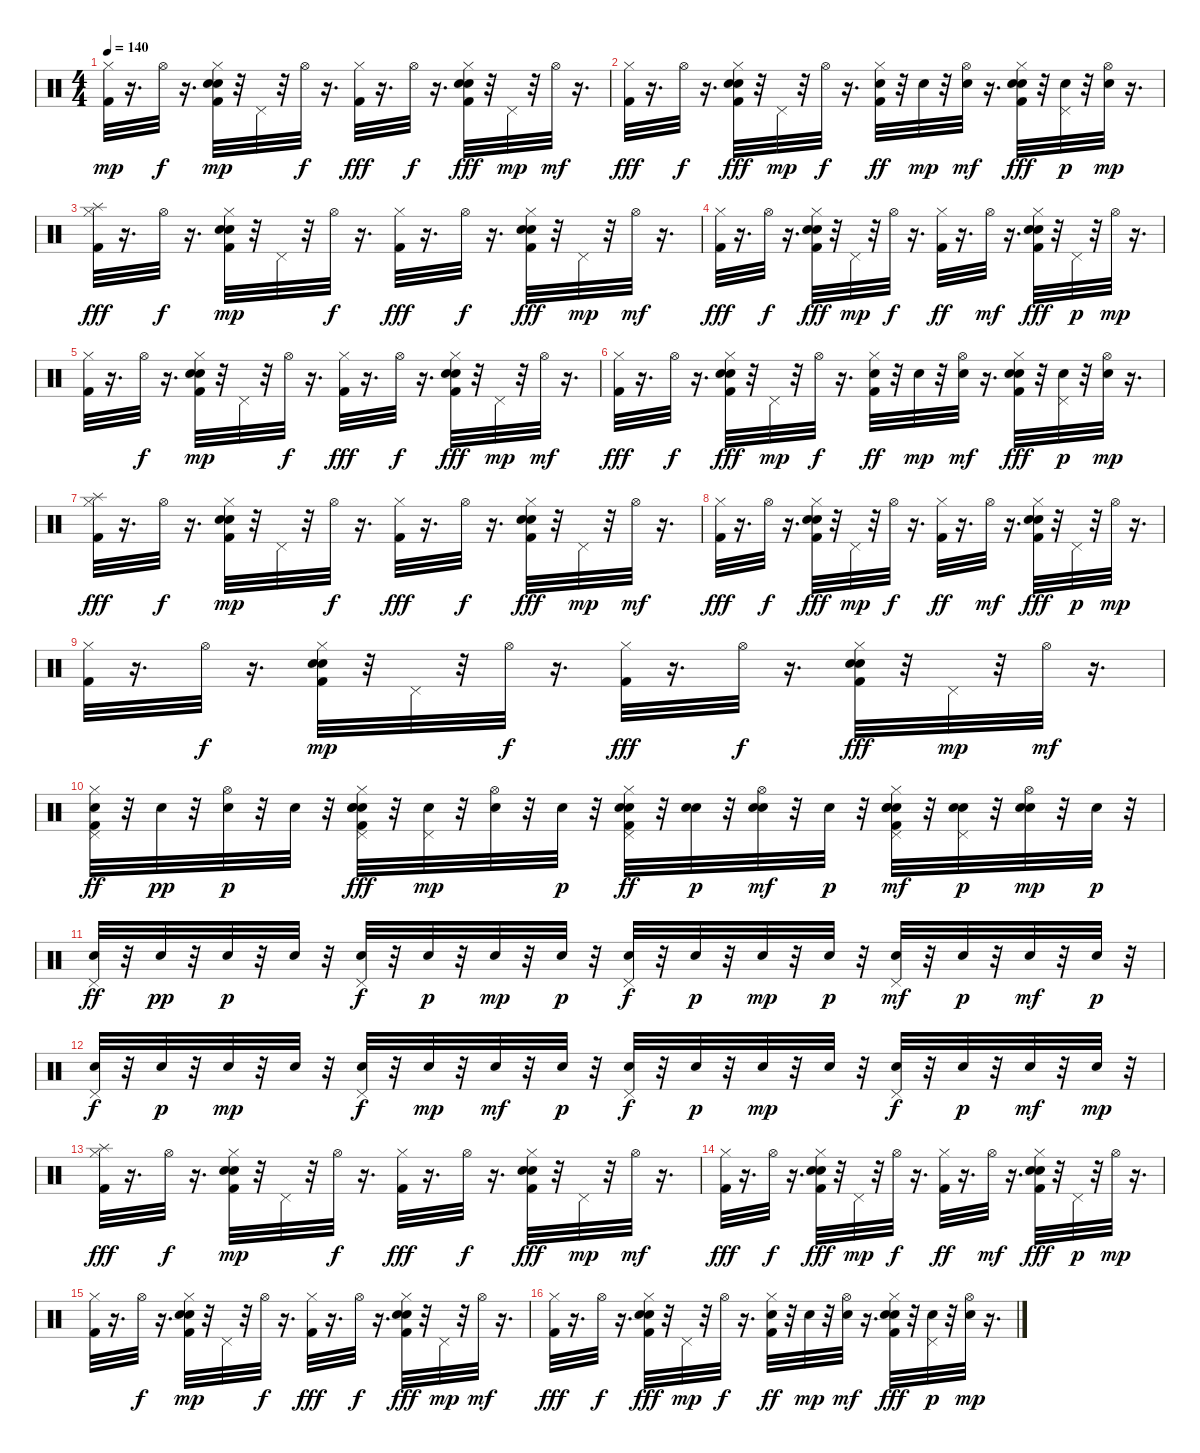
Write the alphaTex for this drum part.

\track "" {instrument percussion}
\staff {score}
\articulation defaults
\ts (4 4)
\tempo 140
\clef neutral
\ks c
("Kick (hit) 2" "Hi-Hat (closed)").32{dy mp} r.16{d} "Hi-Hat (open)".32{dy f} r.16{d} ("Kick (hit) 2" "Snare (hit) 2" "Hand Clap (hit)" "Hi-Hat (closed)").32{dy mp} r.32 "Pedal Hi-Hat (hit)".32 r.32 "Hi-Hat (open)".32{dy f} r.16{d} ("Kick (hit) 2" "Hi-Hat (closed)").32{dy fff} r.16{d} "Hi-Hat (open)".32{dy f} r.16{d} ("Kick (hit) 2" "Snare (hit) 2" "Hand Clap (hit)" "Hi-Hat (closed)").32{dy fff} r.32 "Pedal Hi-Hat (hit)".32{dy mp} r.32 "Hi-Hat (open)".32{dy mf} r.16{d} |
("Kick (hit) 2" "Hi-Hat (closed)").32{dy fff} r.16{d} "Hi-Hat (open)".32{dy f} r.16{d} ("Kick (hit) 2" "Snare (hit) 2" "Hand Clap (hit)" "Hi-Hat (closed)").32{dy fff} r.32 "Pedal Hi-Hat (hit)".32{dy mp} r.32 "Hi-Hat (open)".32{dy f} r.16{d} ("Kick (hit) 2" "Snare (hit) 2" "Hi-Hat (closed)").32{dy ff} r.32 "Snare (hit) 2".32{dy mp} r.32 ("Snare (hit) 2" "Hi-Hat (open)").32{dy mf} r.16{d} ("Kick (hit) 2" "Snare (hit) 2" "Hand Clap (hit)" "Hi-Hat (closed)").32{dy fff} r.32 ("Snare (hit) 2" "Pedal Hi-Hat (hit)").32{dy p} r.32 ("Snare (hit) 2" "Hi-Hat (open)").32{dy mp} r.16{d} |
("Kick (hit) 2" "Hi-Hat (closed)" "Splash (hit)").32{dy fff} r.16{d} "Hi-Hat (open)".32{dy f} r.16{d} ("Kick (hit) 2" "Snare (hit) 2" "Hand Clap (hit)" "Hi-Hat (closed)").32{dy mp} r.32 "Pedal Hi-Hat (hit)".32 r.32 "Hi-Hat (open)".32{dy f} r.16{d} ("Kick (hit) 2" "Hi-Hat (closed)").32{dy fff} r.16{d} "Hi-Hat (open)".32{dy f} r.16{d} ("Kick (hit) 2" "Snare (hit) 2" "Hand Clap (hit)" "Hi-Hat (closed)").32{dy fff} r.32 "Pedal Hi-Hat (hit)".32{dy mp} r.32 "Hi-Hat (open)".32{dy mf} r.16{d} |
("Kick (hit) 2" "Hi-Hat (closed)").32{dy fff} r.16{d} "Hi-Hat (open)".32{dy f} r.16{d} ("Kick (hit) 2" "Snare (hit) 2" "Hand Clap (hit)" "Hi-Hat (closed)").32{dy fff} r.32 "Pedal Hi-Hat (hit)".32{dy mp} r.32 "Hi-Hat (open)".32{dy f} r.16{d} ("Kick (hit) 2" "Hi-Hat (closed)").32{dy ff} r.16{d} "Hi-Hat (open)".32{dy mf} r.16{d} ("Kick (hit) 2" "Snare (hit) 2" "Hand Clap (hit)" "Hi-Hat (closed)").32{dy fff} r.32 "Pedal Hi-Hat (hit)".32{dy p} r.32 "Hi-Hat (open)".32{dy mp} r.16{d} |
("Kick (hit) 2" "Hi-Hat (closed)").32 r.16{d} "Hi-Hat (open)".32{dy f} r.16{d} ("Kick (hit) 2" "Snare (hit) 2" "Hand Clap (hit)" "Hi-Hat (closed)").32{dy mp} r.32 "Pedal Hi-Hat (hit)".32 r.32 "Hi-Hat (open)".32{dy f} r.16{d} ("Kick (hit) 2" "Hi-Hat (closed)").32{dy fff} r.16{d} "Hi-Hat (open)".32{dy f} r.16{d} ("Kick (hit) 2" "Snare (hit) 2" "Hand Clap (hit)" "Hi-Hat (closed)").32{dy fff} r.32 "Pedal Hi-Hat (hit)".32{dy mp} r.32 "Hi-Hat (open)".32{dy mf} r.16{d} |
("Kick (hit) 2" "Hi-Hat (closed)").32{dy fff} r.16{d} "Hi-Hat (open)".32{dy f} r.16{d} ("Kick (hit) 2" "Snare (hit) 2" "Hand Clap (hit)" "Hi-Hat (closed)").32{dy fff} r.32 "Pedal Hi-Hat (hit)".32{dy mp} r.32 "Hi-Hat (open)".32{dy f} r.16{d} ("Kick (hit) 2" "Snare (hit) 2" "Hi-Hat (closed)").32{dy ff} r.32 "Snare (hit) 2".32{dy mp} r.32 ("Snare (hit) 2" "Hi-Hat (open)").32{dy mf} r.16{d} ("Kick (hit) 2" "Snare (hit) 2" "Hand Clap (hit)" "Hi-Hat (closed)").32{dy fff} r.32 ("Snare (hit) 2" "Pedal Hi-Hat (hit)").32{dy p} r.32 ("Snare (hit) 2" "Hi-Hat (open)").32{dy mp} r.16{d} |
("Kick (hit) 2" "Hi-Hat (closed)" "Splash (hit)").32{dy fff} r.16{d} "Hi-Hat (open)".32{dy f} r.16{d} ("Kick (hit) 2" "Snare (hit) 2" "Hand Clap (hit)" "Hi-Hat (closed)").32{dy mp} r.32 "Pedal Hi-Hat (hit)".32 r.32 "Hi-Hat (open)".32{dy f} r.16{d} ("Kick (hit) 2" "Hi-Hat (closed)").32{dy fff} r.16{d} "Hi-Hat (open)".32{dy f} r.16{d} ("Kick (hit) 2" "Snare (hit) 2" "Hand Clap (hit)" "Hi-Hat (closed)").32{dy fff} r.32 "Pedal Hi-Hat (hit)".32{dy mp} r.32 "Hi-Hat (open)".32{dy mf} r.16{d} |
("Kick (hit) 2" "Hi-Hat (closed)").32{dy fff} r.16{d} "Hi-Hat (open)".32{dy f} r.16{d} ("Kick (hit) 2" "Snare (hit) 2" "Hand Clap (hit)" "Hi-Hat (closed)").32{dy fff} r.32 "Pedal Hi-Hat (hit)".32{dy mp} r.32 "Hi-Hat (open)".32{dy f} r.16{d} ("Kick (hit) 2" "Hi-Hat (closed)").32{dy ff} r.16{d} "Hi-Hat (open)".32{dy mf} r.16{d} ("Kick (hit) 2" "Snare (hit) 2" "Hand Clap (hit)" "Hi-Hat (closed)").32{dy fff} r.32 "Pedal Hi-Hat (hit)".32{dy p} r.32 "Hi-Hat (open)".32{dy mp} r.16{d} |
("Kick (hit) 2" "Hi-Hat (closed)").32 r.16{d} "Hi-Hat (open)".32{dy f} r.16{d} ("Kick (hit) 2" "Snare (hit) 2" "Hand Clap (hit)" "Hi-Hat (closed)").32{dy mp} r.32 "Pedal Hi-Hat (hit)".32 r.32 "Hi-Hat (open)".32{dy f} r.16{d} ("Kick (hit) 2" "Hi-Hat (closed)").32{dy fff} r.16{d} "Hi-Hat (open)".32{dy f} r.16{d} ("Kick (hit) 2" "Snare (hit) 2" "Hand Clap (hit)" "Hi-Hat (closed)").32{dy fff} r.32 "Pedal Hi-Hat (hit)".32{dy mp} r.32 "Hi-Hat (open)".32{dy mf} r.16{d} |
("Kick (hit) 2" "Snare (hit) 2" "Hi-Hat (closed)" "Pedal Hi-Hat (hit)").32{dy ff} r.32 "Snare (hit) 2".32{dy pp} r.32 ("Snare (hit) 2" "Hi-Hat (open)").32{dy p} r.32 "Snare (hit) 2".32 r.32 ("Kick (hit) 2" "Snare (hit) 2" "Snare (hit) 2" "Hand Clap (hit)" "Hi-Hat (closed)" "Pedal Hi-Hat (hit)").32{dy fff} r.32 ("Snare (hit) 2" "Pedal Hi-Hat (hit)").32{dy mp} r.32 ("Snare (hit) 2" "Hi-Hat (open)").32 r.32 "Snare (hit) 2".32{dy p} r.32 ("Kick (hit) 2" "Snare (hit) 2" "Snare (hit) 2" "Hi-Hat (closed)" "Pedal Hi-Hat (hit)").32{dy ff} r.32 ("Snare (hit) 2" "Snare (hit) 2").32{dy p} r.32 ("Snare (hit) 2" "Snare (hit) 2" "Hi-Hat (open)").32{dy mf} r.32 "Snare (hit) 2".32{dy p} r.32 ("Kick (hit) 2" "Snare (hit) 2" "Snare (hit) 2" "Hand Clap (hit)" "Hi-Hat (closed)" "Pedal Hi-Hat (hit)").32{dy mf} r.32 ("Snare (hit) 2" "Snare (hit) 2" "Pedal Hi-Hat (hit)").32{dy p} r.32 ("Snare (hit) 2" "Snare (hit) 2" "Hi-Hat (open)").32{dy mp} r.32 "Snare (hit) 2".32{dy p} r.32 |
("Snare (hit) 2" "Pedal Hi-Hat (hit)").32{dy ff} r.32 "Snare (hit) 2".32{dy pp} r.32 "Snare (hit) 2".32{dy p} r.32 "Snare (hit) 2".32 r.32 ("Snare (hit) 2" "Pedal Hi-Hat (hit)").32{dy f} r.32 "Snare (hit) 2".32{dy p} r.32 "Snare (hit) 2".32{dy mp} r.32 "Snare (hit) 2".32{dy p} r.32 ("Snare (hit) 2" "Pedal Hi-Hat (hit)").32{dy f} r.32 "Snare (hit) 2".32{dy p} r.32 "Snare (hit) 2".32{dy mp} r.32 "Snare (hit) 2".32{dy p} r.32 ("Snare (hit) 2" "Pedal Hi-Hat (hit)").32{dy mf} r.32 "Snare (hit) 2".32{dy p} r.32 "Snare (hit) 2".32{dy mf} r.32 "Snare (hit) 2".32{dy p} r.32 |
("Snare (hit) 2" "Pedal Hi-Hat (hit)").32{dy f} r.32 "Snare (hit) 2".32{dy p} r.32 "Snare (hit) 2".32{dy mp} r.32 "Snare (hit) 2".32 r.32 ("Snare (hit) 2" "Pedal Hi-Hat (hit)").32{dy f} r.32 "Snare (hit) 2".32{dy mp} r.32 "Snare (hit) 2".32{dy mf} r.32 "Snare (hit) 2".32{dy p} r.32 ("Snare (hit) 2" "Pedal Hi-Hat (hit)").32{dy f} r.32 "Snare (hit) 2".32{dy p} r.32 "Snare (hit) 2".32{dy mp} r.32 "Snare (hit) 2".32 r.32 ("Snare (hit) 2" "Pedal Hi-Hat (hit)").32{dy f} r.32 "Snare (hit) 2".32{dy p} r.32 "Snare (hit) 2".32{dy mf} r.32 "Snare (hit) 2".32{dy mp} r.32 |
("Kick (hit) 2" "Hi-Hat (closed)" "Splash (hit)").32{dy fff} r.16{d} "Hi-Hat (open)".32{dy f} r.16{d} ("Kick (hit) 2" "Snare (hit) 2" "Hand Clap (hit)" "Hi-Hat (closed)").32{dy mp} r.32 "Pedal Hi-Hat (hit)".32 r.32 "Hi-Hat (open)".32{dy f} r.16{d} ("Kick (hit) 2" "Hi-Hat (closed)").32{dy fff} r.16{d} "Hi-Hat (open)".32{dy f} r.16{d} ("Kick (hit) 2" "Snare (hit) 2" "Hand Clap (hit)" "Hi-Hat (closed)").32{dy fff} r.32 "Pedal Hi-Hat (hit)".32{dy mp} r.32 "Hi-Hat (open)".32{dy mf} r.16{d} |
("Kick (hit) 2" "Hi-Hat (closed)").32{dy fff} r.16{d} "Hi-Hat (open)".32{dy f} r.16{d} ("Kick (hit) 2" "Snare (hit) 2" "Hand Clap (hit)" "Hi-Hat (closed)").32{dy fff} r.32 "Pedal Hi-Hat (hit)".32{dy mp} r.32 "Hi-Hat (open)".32{dy f} r.16{d} ("Kick (hit) 2" "Hi-Hat (closed)").32{dy ff} r.16{d} "Hi-Hat (open)".32{dy mf} r.16{d} ("Kick (hit) 2" "Snare (hit) 2" "Hand Clap (hit)" "Hi-Hat (closed)").32{dy fff} r.32 "Pedal Hi-Hat (hit)".32{dy p} r.32 "Hi-Hat (open)".32{dy mp} r.16{d} |
("Kick (hit) 2" "Hi-Hat (closed)").32 r.16{d} "Hi-Hat (open)".32{dy f} r.16{d} ("Kick (hit) 2" "Snare (hit) 2" "Hand Clap (hit)" "Hi-Hat (closed)").32{dy mp} r.32 "Pedal Hi-Hat (hit)".32 r.32 "Hi-Hat (open)".32{dy f} r.16{d} ("Kick (hit) 2" "Hi-Hat (closed)").32{dy fff} r.16{d} "Hi-Hat (open)".32{dy f} r.16{d} ("Kick (hit) 2" "Snare (hit) 2" "Hand Clap (hit)" "Hi-Hat (closed)").32{dy fff} r.32 "Pedal Hi-Hat (hit)".32{dy mp} r.32 "Hi-Hat (open)".32{dy mf} r.16{d} |
("Kick (hit) 2" "Hi-Hat (closed)").32{dy fff} r.16{d} "Hi-Hat (open)".32{dy f} r.16{d} ("Kick (hit) 2" "Snare (hit) 2" "Hand Clap (hit)" "Hi-Hat (closed)").32{dy fff} r.32 "Pedal Hi-Hat (hit)".32{dy mp} r.32 "Hi-Hat (open)".32{dy f} r.16{d} ("Kick (hit) 2" "Snare (hit) 2" "Hi-Hat (closed)").32{dy ff} r.32 "Snare (hit) 2".32{dy mp} r.32 ("Snare (hit) 2" "Hi-Hat (open)").32{dy mf} r.16{d} ("Kick (hit) 2" "Snare (hit) 2" "Hand Clap (hit)" "Hi-Hat (closed)").32{dy fff} r.32 ("Snare (hit) 2" "Pedal Hi-Hat (hit)").32{dy p} r.32 ("Snare (hit) 2" "Hi-Hat (open)").32{dy mp} r.16{d}
